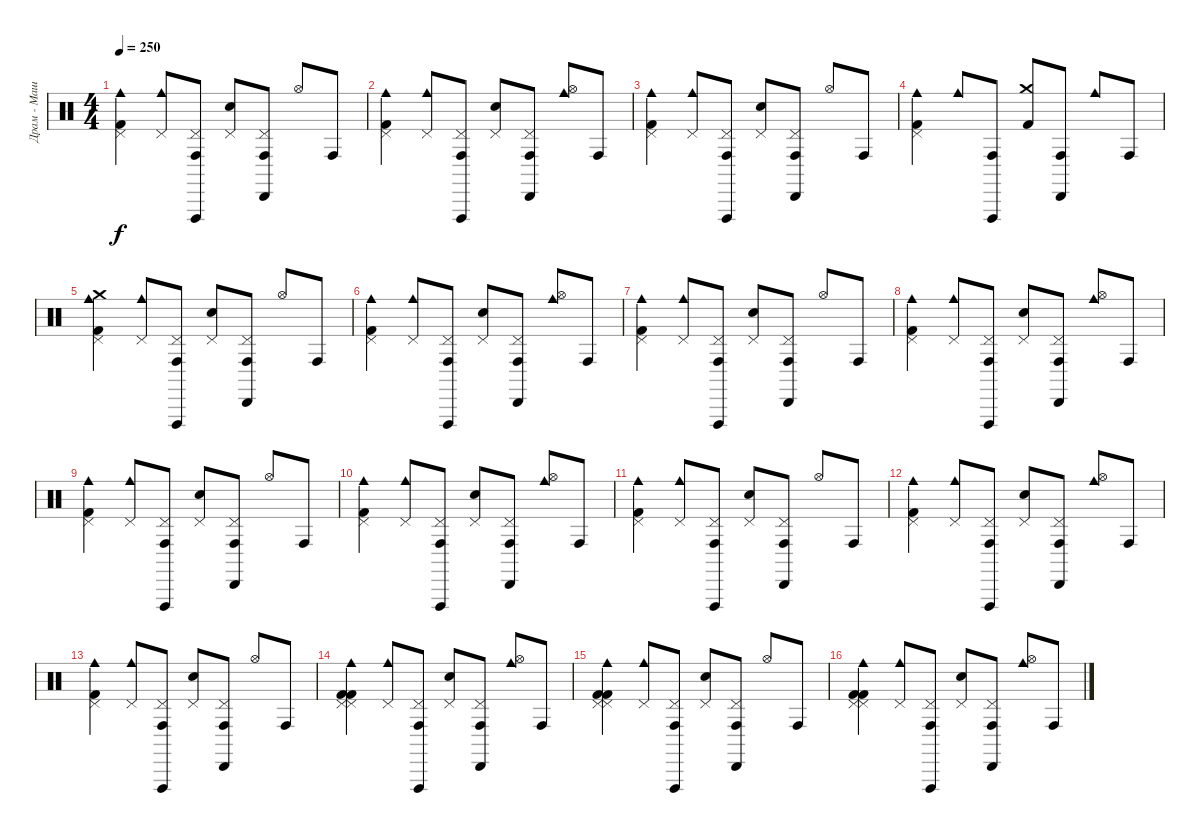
\track ("Драм - Машина" "Драм - Маш") {instrument percussion}
\staff {score}
\articulation defaults
\ts (4 4)
\tempo 250
\clef neutral
\ks c
("Cowbell medium (hit)" "Pedal Hi-Hat (hit)" "Kick (hit) 2").4{dy f} ("Cowbell medium (hit)" "Pedal Hi-Hat (hit)").8 ("Conga high (hit)" "Vibraslap (hit)" "Pedal Hi-Hat (hit)").8 ("Pedal Hi-Hat (hit)" "Snare (hit) 2").8 ("Cabasa (hit)" "Conga high (hit)" "Pedal Hi-Hat (hit)").8 "Hi-Hat (open)".8 "Conga high (hit)".8 |
("Cowbell medium (hit)" "Pedal Hi-Hat (hit)" "Kick (hit) 2").4 ("Cowbell medium (hit)" "Pedal Hi-Hat (hit)").8 ("Conga high (hit)" "Vibraslap (hit)" "Pedal Hi-Hat (hit)").8 ("Pedal Hi-Hat (hit)" "Snare (hit) 2").8 ("Cabasa (hit)" "Conga high (hit)" "Pedal Hi-Hat (hit)").8 ("Cowbell medium (hit)" "Hi-Hat (open)").8 "Conga high (hit)".8 |
("Cowbell medium (hit)" "Pedal Hi-Hat (hit)" "Kick (hit) 2").4 ("Cowbell medium (hit)" "Pedal Hi-Hat (hit)").8 ("Conga high (hit)" "Vibraslap (hit)" "Pedal Hi-Hat (hit)").8 ("Pedal Hi-Hat (hit)" "Snare (hit) 2").8 ("Cabasa (hit)" "Conga high (hit)" "Pedal Hi-Hat (hit)").8 "Hi-Hat (open)".8 "Conga high (hit)".8 |
("Cowbell medium (hit)" "Pedal Hi-Hat (hit)" "Kick (hit) 2").4 "Cowbell medium (hit)".8 ("Conga high (hit)" "Vibraslap (hit)").8 ("Crash medium (hit)" "Kick (hit) 2").8 ("Cabasa (hit)" "Conga high (hit)").8 "Cowbell medium (hit)".8 "Conga high (hit)".8 |
("Cowbell medium (hit)" "Crash medium (hit)" "Pedal Hi-Hat (hit)" "Kick (hit) 2").4 ("Cowbell medium (hit)" "Pedal Hi-Hat (hit)").8 ("Conga high (hit)" "Vibraslap (hit)" "Pedal Hi-Hat (hit)").8 ("Pedal Hi-Hat (hit)" "Snare (hit) 2").8 ("Cabasa (hit)" "Conga high (hit)" "Pedal Hi-Hat (hit)").8 "Hi-Hat (open)".8 "Conga high (hit)".8 |
("Cowbell medium (hit)" "Pedal Hi-Hat (hit)" "Kick (hit) 2").4 ("Cowbell medium (hit)" "Pedal Hi-Hat (hit)").8 ("Conga high (hit)" "Vibraslap (hit)" "Pedal Hi-Hat (hit)").8 ("Pedal Hi-Hat (hit)" "Snare (hit) 2").8 ("Cabasa (hit)" "Conga high (hit)" "Pedal Hi-Hat (hit)").8 ("Cowbell medium (hit)" "Hi-Hat (open)").8 "Conga high (hit)".8 |
("Cowbell medium (hit)" "Pedal Hi-Hat (hit)" "Kick (hit) 2").4 ("Cowbell medium (hit)" "Pedal Hi-Hat (hit)").8 ("Conga high (hit)" "Vibraslap (hit)" "Pedal Hi-Hat (hit)").8 ("Pedal Hi-Hat (hit)" "Snare (hit) 2").8 ("Cabasa (hit)" "Conga high (hit)" "Pedal Hi-Hat (hit)").8 "Hi-Hat (open)".8 "Conga high (hit)".8 |
("Cowbell medium (hit)" "Pedal Hi-Hat (hit)" "Kick (hit) 2").4 ("Cowbell medium (hit)" "Pedal Hi-Hat (hit)").8 ("Conga high (hit)" "Vibraslap (hit)" "Pedal Hi-Hat (hit)").8 ("Pedal Hi-Hat (hit)" "Snare (hit) 2").8 ("Cabasa (hit)" "Conga high (hit)" "Pedal Hi-Hat (hit)").8 ("Cowbell medium (hit)" "Hi-Hat (open)").8 "Conga high (hit)".8 |
("Cowbell medium (hit)" "Pedal Hi-Hat (hit)" "Kick (hit) 2").4 ("Cowbell medium (hit)" "Pedal Hi-Hat (hit)").8 ("Conga high (hit)" "Vibraslap (hit)" "Pedal Hi-Hat (hit)").8 ("Pedal Hi-Hat (hit)" "Snare (hit) 2").8 ("Cabasa (hit)" "Conga high (hit)" "Pedal Hi-Hat (hit)").8 "Hi-Hat (open)".8 "Conga high (hit)".8 |
("Cowbell medium (hit)" "Pedal Hi-Hat (hit)" "Kick (hit) 2").4 ("Cowbell medium (hit)" "Pedal Hi-Hat (hit)").8 ("Conga high (hit)" "Vibraslap (hit)" "Pedal Hi-Hat (hit)").8 ("Pedal Hi-Hat (hit)" "Snare (hit) 2").8 ("Cabasa (hit)" "Conga high (hit)" "Pedal Hi-Hat (hit)").8 ("Cowbell medium (hit)" "Hi-Hat (open)").8 "Conga high (hit)".8 |
("Cowbell medium (hit)" "Pedal Hi-Hat (hit)" "Kick (hit) 2").4 ("Cowbell medium (hit)" "Pedal Hi-Hat (hit)").8 ("Conga high (hit)" "Vibraslap (hit)" "Pedal Hi-Hat (hit)").8 ("Pedal Hi-Hat (hit)" "Snare (hit) 2").8 ("Cabasa (hit)" "Conga high (hit)" "Pedal Hi-Hat (hit)").8 "Hi-Hat (open)".8 "Conga high (hit)".8 |
("Cowbell medium (hit)" "Pedal Hi-Hat (hit)" "Kick (hit) 2").4 ("Cowbell medium (hit)" "Pedal Hi-Hat (hit)").8 ("Conga high (hit)" "Vibraslap (hit)" "Pedal Hi-Hat (hit)").8 ("Pedal Hi-Hat (hit)" "Snare (hit) 2").8 ("Cabasa (hit)" "Conga high (hit)" "Pedal Hi-Hat (hit)").8 ("Cowbell medium (hit)" "Hi-Hat (open)").8 "Conga high (hit)".8 |
("Cowbell medium (hit)" "Pedal Hi-Hat (hit)" "Kick (hit) 2").4 ("Cowbell medium (hit)" "Pedal Hi-Hat (hit)").8 ("Conga high (hit)" "Vibraslap (hit)" "Pedal Hi-Hat (hit)").8 ("Pedal Hi-Hat (hit)" "Snare (hit) 2").8 ("Cabasa (hit)" "Conga high (hit)" "Pedal Hi-Hat (hit)").8 "Hi-Hat (open)".8 "Conga high (hit)".8 |
("Cowbell medium (hit)" "Kick (hit) 2" "Pedal Hi-Hat (hit)" "Pedal Hi-Hat (hit)" "Kick (hit) 2").4 ("Cowbell medium (hit)" "Pedal Hi-Hat (hit)").8 ("Conga high (hit)" "Vibraslap (hit)" "Pedal Hi-Hat (hit)").8 ("Pedal Hi-Hat (hit)" "Snare (hit) 2").8 ("Cabasa (hit)" "Conga high (hit)" "Pedal Hi-Hat (hit)").8 ("Cowbell medium (hit)" "Hi-Hat (open)").8 "Conga high (hit)".8 |
("Cowbell medium (hit)" "Kick (hit) 2" "Pedal Hi-Hat (hit)" "Pedal Hi-Hat (hit)" "Kick (hit) 2").4 ("Cowbell medium (hit)" "Pedal Hi-Hat (hit)").8 ("Conga high (hit)" "Vibraslap (hit)" "Pedal Hi-Hat (hit)").8 ("Pedal Hi-Hat (hit)" "Snare (hit) 2").8 ("Cabasa (hit)" "Conga high (hit)" "Pedal Hi-Hat (hit)").8 "Hi-Hat (open)".8 "Conga high (hit)".8 |
("Cowbell medium (hit)" "Kick (hit) 2" "Pedal Hi-Hat (hit)" "Pedal Hi-Hat (hit)" "Kick (hit) 2").4 ("Cowbell medium (hit)" "Pedal Hi-Hat (hit)").8 ("Conga high (hit)" "Vibraslap (hit)" "Pedal Hi-Hat (hit)").8 ("Pedal Hi-Hat (hit)" "Snare (hit) 2").8 ("Cabasa (hit)" "Conga high (hit)" "Pedal Hi-Hat (hit)").8 ("Cowbell medium (hit)" "Hi-Hat (open)").8 "Conga high (hit)".8
